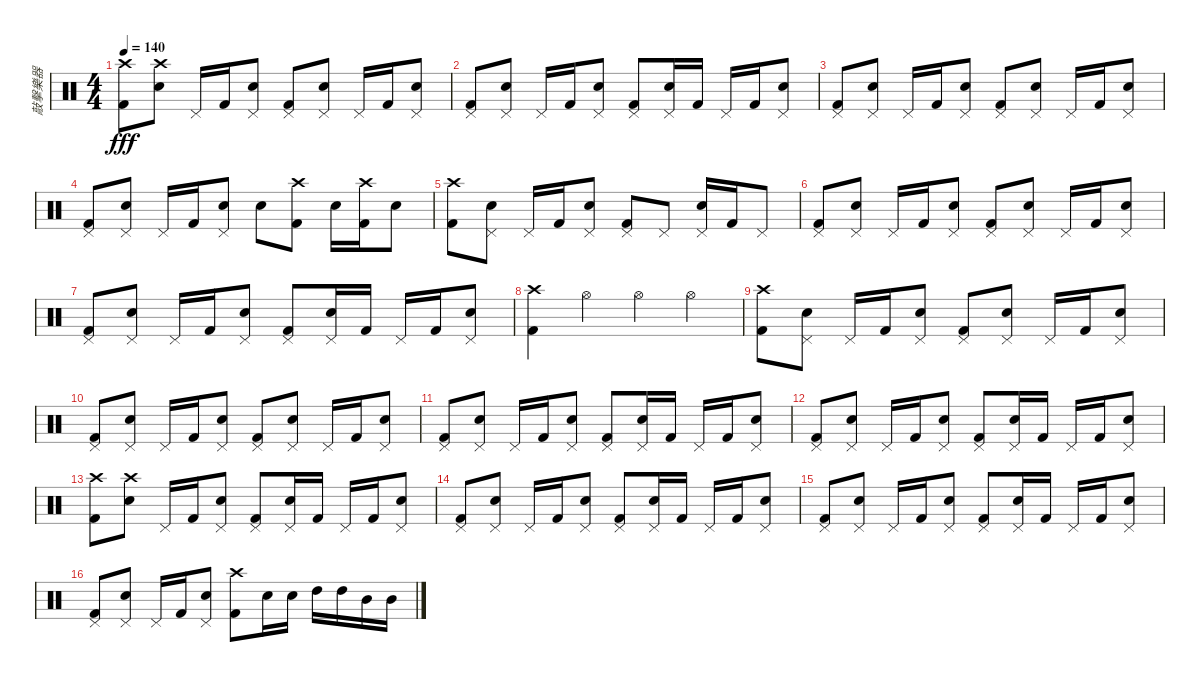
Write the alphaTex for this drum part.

\track ("敲擊樂器" "敲擊樂器") {instrument percussion}
\staff {score}
\articulation defaults
\ts (4 4)
\tempo 140
\clef neutral
\ks c
("Crash high (hit)" "Kick (hit) 2").8{dy fff} ("Crash high (hit)" "Snare (hit) 2").8 "Pedal Hi-Hat (hit)".16 "Kick (hit) 2".16 ("Pedal Hi-Hat (hit)" "Snare (hit) 2").8 ("Pedal Hi-Hat (hit)" "Kick (hit) 2").8 ("Pedal Hi-Hat (hit)" "Snare (hit) 2").8 "Pedal Hi-Hat (hit)".16 "Kick (hit) 2".16 ("Pedal Hi-Hat (hit)" "Snare (hit) 2").8 |
("Pedal Hi-Hat (hit)" "Kick (hit) 2").8 ("Pedal Hi-Hat (hit)" "Snare (hit) 2").8 "Pedal Hi-Hat (hit)".16 "Kick (hit) 2".16 ("Pedal Hi-Hat (hit)" "Snare (hit) 2").8 ("Pedal Hi-Hat (hit)" "Kick (hit) 2").8 ("Pedal Hi-Hat (hit)" "Snare (hit) 2").16 "Kick (hit) 2".16 "Pedal Hi-Hat (hit)".16 "Kick (hit) 2".16 ("Pedal Hi-Hat (hit)" "Snare (hit) 2").8 |
("Pedal Hi-Hat (hit)" "Kick (hit) 2").8 ("Pedal Hi-Hat (hit)" "Snare (hit) 2").8 "Pedal Hi-Hat (hit)".16 "Kick (hit) 2".16 ("Pedal Hi-Hat (hit)" "Snare (hit) 2").8 ("Pedal Hi-Hat (hit)" "Kick (hit) 2").8 ("Pedal Hi-Hat (hit)" "Snare (hit) 2").8 "Pedal Hi-Hat (hit)".16 "Kick (hit) 2".16 ("Pedal Hi-Hat (hit)" "Snare (hit) 2").8 |
("Pedal Hi-Hat (hit)" "Kick (hit) 2").8 ("Pedal Hi-Hat (hit)" "Snare (hit) 2").8 "Pedal Hi-Hat (hit)".16 "Kick (hit) 2".16 ("Pedal Hi-Hat (hit)" "Snare (hit) 2").8 "Snare (hit) 2".8 ("Crash high (hit)" "Kick (hit) 2").8 "Snare (hit) 2".16 ("Crash high (hit)" "Kick (hit) 2").16 "Snare (hit) 2".8 |
("Crash high (hit)" "Kick (hit) 2").8 ("Pedal Hi-Hat (hit)" "Snare (hit) 2").8 "Pedal Hi-Hat (hit)".16 "Kick (hit) 2".16 ("Pedal Hi-Hat (hit)" "Snare (hit) 2").8 ("Pedal Hi-Hat (hit)" "Kick (hit) 2").8 "Pedal Hi-Hat (hit)".8 ("Pedal Hi-Hat (hit)" "Snare (hit) 2").16 "Kick (hit) 2".16 "Pedal Hi-Hat (hit)".8 |
("Pedal Hi-Hat (hit)" "Kick (hit) 2").8 ("Pedal Hi-Hat (hit)" "Snare (hit) 2").8 "Pedal Hi-Hat (hit)".16 "Kick (hit) 2".16 ("Pedal Hi-Hat (hit)" "Snare (hit) 2").8 ("Pedal Hi-Hat (hit)" "Kick (hit) 2").8 ("Pedal Hi-Hat (hit)" "Snare (hit) 2").8 "Pedal Hi-Hat (hit)".16 "Kick (hit) 2".16 ("Pedal Hi-Hat (hit)" "Snare (hit) 2").8 |
("Pedal Hi-Hat (hit)" "Kick (hit) 2").8 ("Pedal Hi-Hat (hit)" "Snare (hit) 2").8 "Pedal Hi-Hat (hit)".16 "Kick (hit) 2".16 ("Pedal Hi-Hat (hit)" "Snare (hit) 2").8 ("Pedal Hi-Hat (hit)" "Kick (hit) 2").8 ("Pedal Hi-Hat (hit)" "Snare (hit) 2").16 "Kick (hit) 2".16 "Pedal Hi-Hat (hit)".16 "Kick (hit) 2".16 ("Pedal Hi-Hat (hit)" "Snare (hit) 2").8 |
("Crash high (hit)" "Kick (hit) 2").4 "Hi-Hat (open)".4 "Hi-Hat (open)".4 "Hi-Hat (open)".4 |
("Crash high (hit)" "Kick (hit) 2").8 ("Pedal Hi-Hat (hit)" "Snare (hit) 2").8 "Pedal Hi-Hat (hit)".16 "Kick (hit) 2".16 ("Pedal Hi-Hat (hit)" "Snare (hit) 2").8 ("Pedal Hi-Hat (hit)" "Kick (hit) 2").8 ("Pedal Hi-Hat (hit)" "Snare (hit) 2").8 "Pedal Hi-Hat (hit)".16 "Kick (hit) 2".16 ("Pedal Hi-Hat (hit)" "Snare (hit) 2").8 |
("Pedal Hi-Hat (hit)" "Kick (hit) 2").8 ("Pedal Hi-Hat (hit)" "Snare (hit) 2").8 "Pedal Hi-Hat (hit)".16 "Kick (hit) 2".16 ("Pedal Hi-Hat (hit)" "Snare (hit) 2").8 ("Pedal Hi-Hat (hit)" "Kick (hit) 2").8 ("Pedal Hi-Hat (hit)" "Snare (hit) 2").8 "Pedal Hi-Hat (hit)".16 "Kick (hit) 2".16 ("Pedal Hi-Hat (hit)" "Snare (hit) 2").8 |
("Pedal Hi-Hat (hit)" "Kick (hit) 2").8 ("Pedal Hi-Hat (hit)" "Snare (hit) 2").8 "Pedal Hi-Hat (hit)".16 "Kick (hit) 2".16 ("Pedal Hi-Hat (hit)" "Snare (hit) 2").8 ("Pedal Hi-Hat (hit)" "Kick (hit) 2").8 ("Pedal Hi-Hat (hit)" "Snare (hit) 2").16 "Kick (hit) 2".16 "Pedal Hi-Hat (hit)".16 "Kick (hit) 2".16 ("Pedal Hi-Hat (hit)" "Snare (hit) 2").8 |
("Pedal Hi-Hat (hit)" "Kick (hit) 2").8 ("Pedal Hi-Hat (hit)" "Snare (hit) 2").8 "Pedal Hi-Hat (hit)".16 "Kick (hit) 2".16 ("Pedal Hi-Hat (hit)" "Snare (hit) 2").8 ("Pedal Hi-Hat (hit)" "Kick (hit) 2").8 ("Pedal Hi-Hat (hit)" "Snare (hit) 2").16 "Kick (hit) 2".16 "Pedal Hi-Hat (hit)".16 "Kick (hit) 2".16 ("Pedal Hi-Hat (hit)" "Snare (hit) 2").8 |
("Crash high (hit)" "Kick (hit) 2").8 ("Crash high (hit)" "Snare (hit) 2").8 "Pedal Hi-Hat (hit)".16 "Kick (hit) 2".16 ("Pedal Hi-Hat (hit)" "Snare (hit) 2").8 ("Pedal Hi-Hat (hit)" "Kick (hit) 2").8 ("Pedal Hi-Hat (hit)" "Snare (hit) 2").16 "Kick (hit) 2".16 "Pedal Hi-Hat (hit)".16 "Kick (hit) 2".16 ("Pedal Hi-Hat (hit)" "Snare (hit) 2").8 |
("Pedal Hi-Hat (hit)" "Kick (hit) 2").8 ("Pedal Hi-Hat (hit)" "Snare (hit) 2").8 "Pedal Hi-Hat (hit)".16 "Kick (hit) 2".16 ("Pedal Hi-Hat (hit)" "Snare (hit) 2").8 ("Pedal Hi-Hat (hit)" "Kick (hit) 2").8 ("Pedal Hi-Hat (hit)" "Snare (hit) 2").16 "Kick (hit) 2".16 "Pedal Hi-Hat (hit)".16 "Kick (hit) 2".16 ("Pedal Hi-Hat (hit)" "Snare (hit) 2").8 |
("Pedal Hi-Hat (hit)" "Kick (hit) 2").8 ("Pedal Hi-Hat (hit)" "Snare (hit) 2").8 "Pedal Hi-Hat (hit)".16 "Kick (hit) 2".16 ("Pedal Hi-Hat (hit)" "Snare (hit) 2").8 ("Pedal Hi-Hat (hit)" "Kick (hit) 2").8 ("Pedal Hi-Hat (hit)" "Snare (hit) 2").16 "Kick (hit) 2".16 "Pedal Hi-Hat (hit)".16 "Kick (hit) 2".16 ("Pedal Hi-Hat (hit)" "Snare (hit) 2").8 |
("Pedal Hi-Hat (hit)" "Kick (hit) 2").8 ("Pedal Hi-Hat (hit)" "Snare (hit) 2").8 "Pedal Hi-Hat (hit)".16 "Kick (hit) 2".16 ("Pedal Hi-Hat (hit)" "Snare (hit) 2").8 ("Crash high (hit)" "Kick (hit) 2").8 "Snare (hit) 2".16 "Snare (hit) 2".16 "High Tom (hit)".16 "High Tom (hit)".16 "Mid Tom (hit)".16 "Mid Tom (hit)".16
